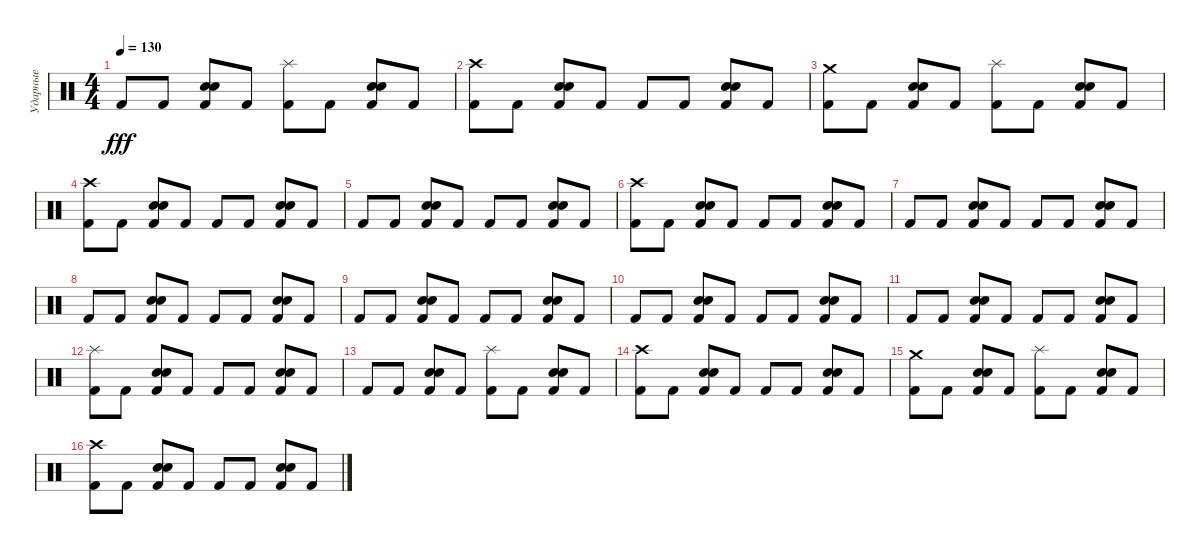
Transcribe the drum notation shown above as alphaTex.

\track ("Ударные" "Ударные") {instrument percussion}
\staff {score}
\articulation defaults
\ts (4 4)
\tempo 130
\clef neutral
\ks c "Kick (hit) 2".8{dy fff} "Kick (hit) 2".8
("Snare (hit) 2" "Snare (hit) 2" "Kick (hit) 2").8 "Kick (hit) 2".8 ("Splash (hit)" "Kick (hit) 2").8 "Kick (hit) 2".8 ("Snare (hit) 2" "Snare (hit) 2" "Kick (hit) 2").8 "Kick (hit) 2".8 |
("Crash high (hit)" "Kick (hit) 2").8 "Kick (hit) 2".8 ("Snare (hit) 2" "Snare (hit) 2" "Kick (hit) 2").8 "Kick (hit) 2".8 "Kick (hit) 2".8 "Kick (hit) 2".8 ("Snare (hit) 2" "Snare (hit) 2" "Kick (hit) 2").8 "Kick (hit) 2".8 |
("Crash medium (hit)" "Kick (hit) 2").8 "Kick (hit) 2".8 ("Snare (hit) 2" "Snare (hit) 2" "Kick (hit) 2").8 "Kick (hit) 2".8 ("Splash (hit)" "Kick (hit) 2").8 "Kick (hit) 2".8 ("Snare (hit) 2" "Snare (hit) 2" "Kick (hit) 2").8 "Kick (hit) 2".8 |
("Crash high (hit)" "Kick (hit) 2").8 "Kick (hit) 2".8 ("Snare (hit) 2" "Snare (hit) 2" "Kick (hit) 2").8 "Kick (hit) 2".8 "Kick (hit) 2".8 "Kick (hit) 2".8 ("Snare (hit) 2" "Snare (hit) 2" "Kick (hit) 2").8 "Kick (hit) 2".8 |
"Kick (hit) 2".8 "Kick (hit) 2".8 ("Snare (hit) 2" "Snare (hit) 2" "Kick (hit) 2").8 "Kick (hit) 2".8 "Kick (hit) 2".8 "Kick (hit) 2".8 ("Snare (hit) 2" "Snare (hit) 2" "Kick (hit) 2").8 "Kick (hit) 2".8 |
("Crash high (hit)" "Kick (hit) 2").8 "Kick (hit) 2".8 ("Snare (hit) 2" "Snare (hit) 2" "Kick (hit) 2").8 "Kick (hit) 2".8 "Kick (hit) 2".8 "Kick (hit) 2".8 ("Snare (hit) 2" "Snare (hit) 2" "Kick (hit) 2").8 "Kick (hit) 2".8 |
"Kick (hit) 2".8 "Kick (hit) 2".8 ("Snare (hit) 2" "Snare (hit) 2" "Kick (hit) 2").8 "Kick (hit) 2".8 "Kick (hit) 2".8 "Kick (hit) 2".8 ("Snare (hit) 2" "Snare (hit) 2" "Kick (hit) 2").8 "Kick (hit) 2".8 |
"Kick (hit) 2".8 "Kick (hit) 2".8 ("Snare (hit) 2" "Snare (hit) 2" "Kick (hit) 2").8 "Kick (hit) 2".8 "Kick (hit) 2".8 "Kick (hit) 2".8 ("Snare (hit) 2" "Snare (hit) 2" "Kick (hit) 2").8 "Kick (hit) 2".8 |
"Kick (hit) 2".8 "Kick (hit) 2".8 ("Snare (hit) 2" "Snare (hit) 2" "Kick (hit) 2").8 "Kick (hit) 2".8 "Kick (hit) 2".8 "Kick (hit) 2".8 ("Snare (hit) 2" "Snare (hit) 2" "Kick (hit) 2").8 "Kick (hit) 2".8 |
"Kick (hit) 2".8 "Kick (hit) 2".8 ("Snare (hit) 2" "Snare (hit) 2" "Kick (hit) 2").8 "Kick (hit) 2".8 "Kick (hit) 2".8 "Kick (hit) 2".8 ("Snare (hit) 2" "Snare (hit) 2" "Kick (hit) 2").8 "Kick (hit) 2".8 |
"Kick (hit) 2".8 "Kick (hit) 2".8 ("Snare (hit) 2" "Snare (hit) 2" "Kick (hit) 2").8 "Kick (hit) 2".8 "Kick (hit) 2".8 "Kick (hit) 2".8 ("Snare (hit) 2" "Snare (hit) 2" "Kick (hit) 2").8 "Kick (hit) 2".8 |
("Splash (hit)" "Kick (hit) 2").8 "Kick (hit) 2".8 ("Snare (hit) 2" "Snare (hit) 2" "Kick (hit) 2").8 "Kick (hit) 2".8 "Kick (hit) 2".8 "Kick (hit) 2".8 ("Snare (hit) 2" "Snare (hit) 2" "Kick (hit) 2").8 "Kick (hit) 2".8 |
"Kick (hit) 2".8 "Kick (hit) 2".8 ("Snare (hit) 2" "Snare (hit) 2" "Kick (hit) 2").8 "Kick (hit) 2".8 ("Splash (hit)" "Kick (hit) 2").8 "Kick (hit) 2".8 ("Snare (hit) 2" "Snare (hit) 2" "Kick (hit) 2").8 "Kick (hit) 2".8 |
("Crash high (hit)" "Kick (hit) 2").8 "Kick (hit) 2".8 ("Snare (hit) 2" "Snare (hit) 2" "Kick (hit) 2").8 "Kick (hit) 2".8 "Kick (hit) 2".8 "Kick (hit) 2".8 ("Snare (hit) 2" "Snare (hit) 2" "Kick (hit) 2").8 "Kick (hit) 2".8 |
("Crash medium (hit)" "Kick (hit) 2").8 "Kick (hit) 2".8 ("Snare (hit) 2" "Snare (hit) 2" "Kick (hit) 2").8 "Kick (hit) 2".8 ("Splash (hit)" "Kick (hit) 2").8 "Kick (hit) 2".8 ("Snare (hit) 2" "Snare (hit) 2" "Kick (hit) 2").8 "Kick (hit) 2".8 |
("Crash high (hit)" "Kick (hit) 2").8 "Kick (hit) 2".8 ("Snare (hit) 2" "Snare (hit) 2" "Kick (hit) 2").8 "Kick (hit) 2".8 "Kick (hit) 2".8 "Kick (hit) 2".8 ("Snare (hit) 2" "Snare (hit) 2" "Kick (hit) 2").8 "Kick (hit) 2".8
